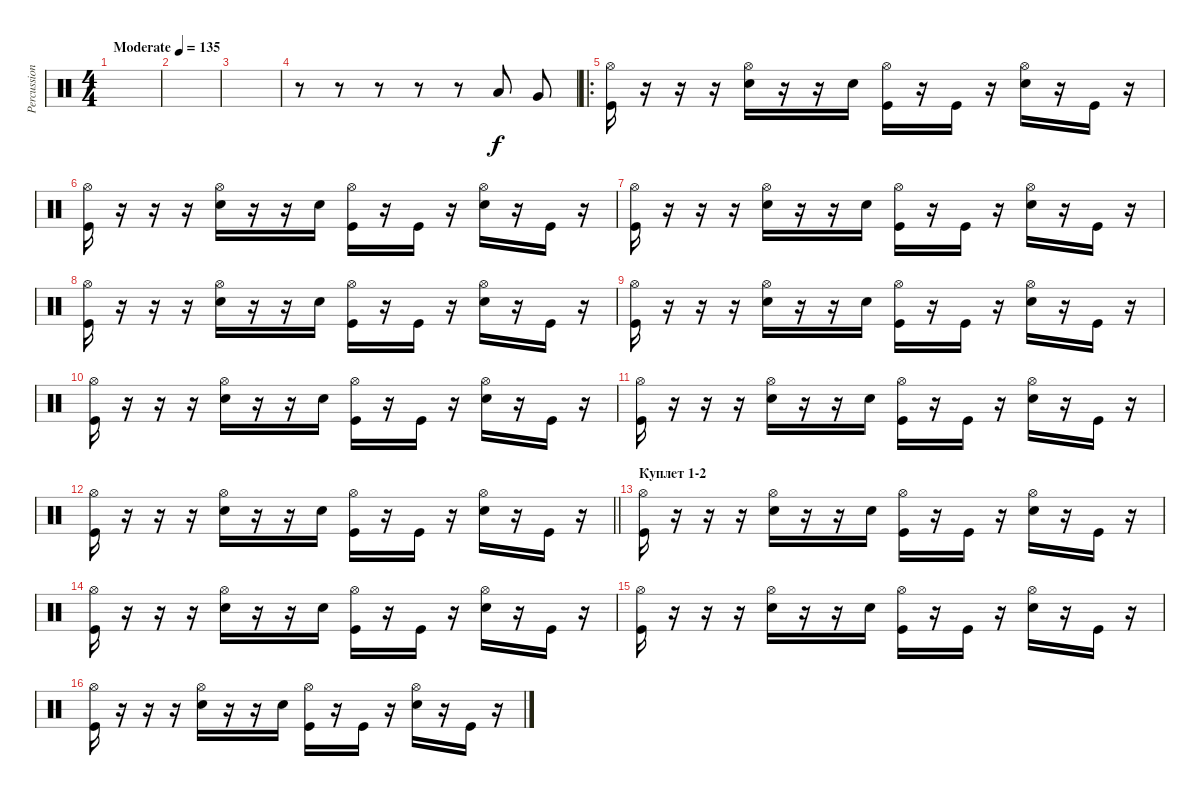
\track ("Percussion" "Percussion") {instrument percussion}
\staff {score}
\articulation defaults
\ts (4 4)
\tempo (135 "Moderate")
\clef neutral
\ks c
|
|
|
r.8 r.8 r.8 r.8 r.8 "Low Tom (hit)".8 "Very Low Tom (hit)".8 |
\ro
("Hi-Hat (open)" "Kick (hit)").16 r.16 r.16 r.16 ("Hi-Hat (open)" "Snare (hit) 2").16 r.16 r.16 "Snare (hit) 2".16 ("Hi-Hat (open)" "Kick (hit)").16 r.16 "Kick (hit)".16 r.16 ("Hi-Hat (open)" "Snare (hit) 2").16 r.16 "Kick (hit)".16 r.16 |
("Hi-Hat (open)" "Kick (hit)").16 r.16 r.16 r.16 ("Hi-Hat (open)" "Snare (hit) 2").16 r.16 r.16 "Snare (hit) 2".16 ("Hi-Hat (open)" "Kick (hit)").16 r.16 "Kick (hit)".16 r.16 ("Hi-Hat (open)" "Snare (hit) 2").16 r.16 "Kick (hit)".16 r.16 |
("Hi-Hat (open)" "Kick (hit)").16 r.16 r.16 r.16 ("Hi-Hat (open)" "Snare (hit) 2").16 r.16 r.16 "Snare (hit) 2".16 ("Hi-Hat (open)" "Kick (hit)").16 r.16 "Kick (hit)".16 r.16 ("Hi-Hat (open)" "Snare (hit) 2").16 r.16 "Kick (hit)".16 r.16 |
("Hi-Hat (open)" "Kick (hit)").16 r.16 r.16 r.16 ("Hi-Hat (open)" "Snare (hit) 2").16 r.16 r.16 "Snare (hit) 2".16 ("Hi-Hat (open)" "Kick (hit)").16 r.16 "Kick (hit)".16 r.16 ("Hi-Hat (open)" "Snare (hit) 2").16 r.16 "Kick (hit)".16 r.16 |
("Hi-Hat (open)" "Kick (hit)").16 r.16 r.16 r.16 ("Hi-Hat (open)" "Snare (hit) 2").16 r.16 r.16 "Snare (hit) 2".16 ("Hi-Hat (open)" "Kick (hit)").16 r.16 "Kick (hit)".16 r.16 ("Hi-Hat (open)" "Snare (hit) 2").16 r.16 "Kick (hit)".16 r.16 |
("Hi-Hat (open)" "Kick (hit)").16 r.16 r.16 r.16 ("Hi-Hat (open)" "Snare (hit) 2").16 r.16 r.16 "Snare (hit) 2".16 ("Hi-Hat (open)" "Kick (hit)").16 r.16 "Kick (hit)".16 r.16 ("Hi-Hat (open)" "Snare (hit) 2").16 r.16 "Kick (hit)".16 r.16 |
("Hi-Hat (open)" "Kick (hit)").16 r.16 r.16 r.16 ("Hi-Hat (open)" "Snare (hit) 2").16 r.16 r.16 "Snare (hit) 2".16 ("Hi-Hat (open)" "Kick (hit)").16 r.16 "Kick (hit)".16 r.16 ("Hi-Hat (open)" "Snare (hit) 2").16 r.16 "Kick (hit)".16 r.16 |
\barLineRight lightlight
("Hi-Hat (open)" "Kick (hit)").16 r.16 r.16 r.16 ("Hi-Hat (open)" "Snare (hit) 2").16 r.16 r.16 "Snare (hit) 2".16 ("Hi-Hat (open)" "Kick (hit)").16 r.16 "Kick (hit)".16 r.16 ("Hi-Hat (open)" "Snare (hit) 2").16 r.16 "Kick (hit)".16 r.16 |
\section ("" "Куплет 1-2")
("Hi-Hat (open)" "Kick (hit)").16 r.16 r.16 r.16 ("Hi-Hat (open)" "Snare (hit) 2").16 r.16 r.16 "Snare (hit) 2".16 ("Hi-Hat (open)" "Kick (hit)").16 r.16 "Kick (hit)".16 r.16 ("Hi-Hat (open)" "Snare (hit) 2").16 r.16 "Kick (hit)".16 r.16 |
("Hi-Hat (open)" "Kick (hit)").16 r.16 r.16 r.16 ("Hi-Hat (open)" "Snare (hit) 2").16 r.16 r.16 "Snare (hit) 2".16 ("Hi-Hat (open)" "Kick (hit)").16 r.16 "Kick (hit)".16 r.16 ("Hi-Hat (open)" "Snare (hit) 2").16 r.16 "Kick (hit)".16 r.16 |
("Hi-Hat (open)" "Kick (hit)").16 r.16 r.16 r.16 ("Hi-Hat (open)" "Snare (hit) 2").16 r.16 r.16 "Snare (hit) 2".16 ("Hi-Hat (open)" "Kick (hit)").16 r.16 "Kick (hit)".16 r.16 ("Hi-Hat (open)" "Snare (hit) 2").16 r.16 "Kick (hit)".16 r.16 |
("Hi-Hat (open)" "Kick (hit)").16 r.16 r.16 r.16 ("Hi-Hat (open)" "Snare (hit) 2").16 r.16 r.16 "Snare (hit) 2".16 ("Hi-Hat (open)" "Kick (hit)").16 r.16 "Kick (hit)".16 r.16 ("Hi-Hat (open)" "Snare (hit) 2").16 r.16 "Kick (hit)".16 r.16
